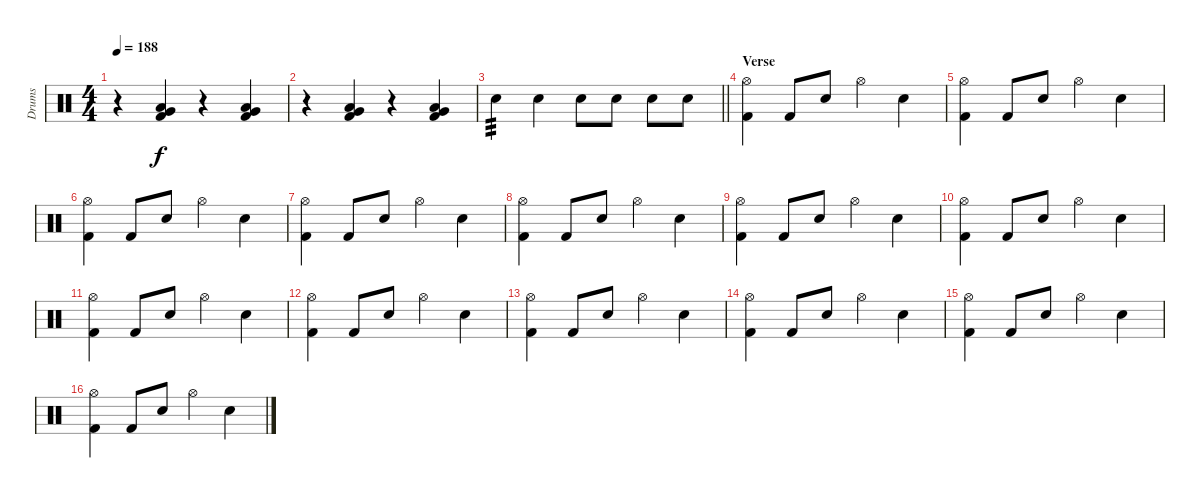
\track ("Drums" "Drums") {instrument percussion}
\staff {score}
\articulation defaults
\ts (4 4)
\tempo 188
\clef neutral
\ks c
r.4{dy f} ("Low Floor Tom (hit)" "Very Low Tom (hit)" "Kick (hit) 2").4 r.4 ("Low Floor Tom (hit)" "Very Low Tom (hit)" "Kick (hit) 2").4 |
r.4 ("Low Floor Tom (hit)" "Very Low Tom (hit)" "Kick (hit) 2").4 r.4 ("Low Floor Tom (hit)" "Very Low Tom (hit)" "Kick (hit) 2").4 |
\barLineRight lightlight "Electric Snare (hit)".4{tp 3} "Electric Snare (hit)".4 "Electric Snare (hit)".8 "Electric Snare (hit)".8 "Electric Snare (hit)".8 "Electric Snare (hit)".8
|
\section ("" "Verse")
("Hi-Hat (open)" "Kick (hit) 2").4 "Kick (hit) 2".8 "Electric Snare (hit)".8 "Hi-Hat (open)".4 "Electric Snare (hit)".4 |
("Hi-Hat (open)" "Kick (hit) 2").4 "Kick (hit) 2".8 "Electric Snare (hit)".8 "Hi-Hat (open)".4 "Electric Snare (hit)".4 |
("Hi-Hat (open)" "Kick (hit) 2").4 "Kick (hit) 2".8 "Electric Snare (hit)".8 "Hi-Hat (open)".4 "Electric Snare (hit)".4 |
("Hi-Hat (open)" "Kick (hit) 2").4 "Kick (hit) 2".8 "Electric Snare (hit)".8 "Hi-Hat (open)".4 "Electric Snare (hit)".4 |
("Hi-Hat (open)" "Kick (hit) 2").4 "Kick (hit) 2".8 "Electric Snare (hit)".8 "Hi-Hat (open)".4 "Electric Snare (hit)".4 |
("Hi-Hat (open)" "Kick (hit) 2").4 "Kick (hit) 2".8 "Electric Snare (hit)".8 "Hi-Hat (open)".4 "Electric Snare (hit)".4 |
("Hi-Hat (open)" "Kick (hit) 2").4 "Kick (hit) 2".8 "Electric Snare (hit)".8 "Hi-Hat (open)".4 "Electric Snare (hit)".4 |
("Hi-Hat (open)" "Kick (hit) 2").4 "Kick (hit) 2".8 "Electric Snare (hit)".8 "Hi-Hat (open)".4 "Electric Snare (hit)".4 |
("Hi-Hat (open)" "Kick (hit) 2").4 "Kick (hit) 2".8 "Electric Snare (hit)".8 "Hi-Hat (open)".4 "Electric Snare (hit)".4 |
("Hi-Hat (open)" "Kick (hit) 2").4 "Kick (hit) 2".8 "Electric Snare (hit)".8 "Hi-Hat (open)".4 "Electric Snare (hit)".4 |
("Hi-Hat (open)" "Kick (hit) 2").4 "Kick (hit) 2".8 "Electric Snare (hit)".8 "Hi-Hat (open)".4 "Electric Snare (hit)".4 |
("Hi-Hat (open)" "Kick (hit) 2").4 "Kick (hit) 2".8 "Electric Snare (hit)".8 "Hi-Hat (open)".4 "Electric Snare (hit)".4 |
("Hi-Hat (open)" "Kick (hit) 2").4 "Kick (hit) 2".8 "Electric Snare (hit)".8 "Hi-Hat (open)".4 "Electric Snare (hit)".4
